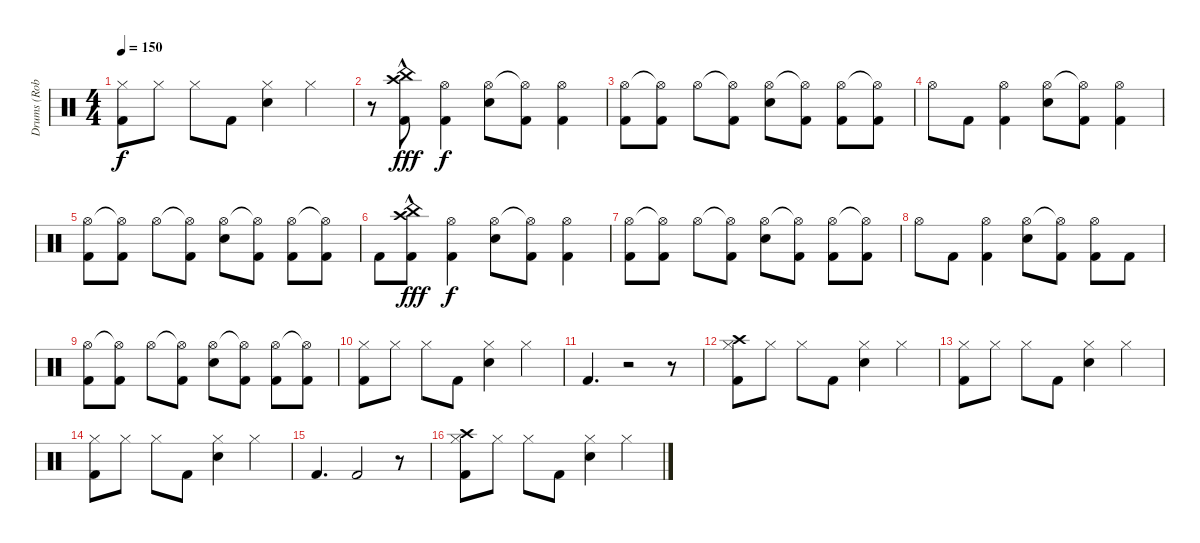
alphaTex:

\track ("Drums (Rob)" "Drums (Rob") {instrument percussion}
\staff {score}
\articulation defaults
\ts (4 4)
\tempo 150
\clef neutral
\ks c
("Hi-Hat (closed)" "Kick (hit) 2").8{dy f} "Hi-Hat (closed)".8 "Hi-Hat (closed)".8 "Kick (hit) 2".8 ("Hi-Hat (closed)" "Snare (hit) 2").4 "Hi-Hat (closed)".4 |
r.8 ("Crash high (hit)"{hac} "China (hit)"{hac} "Kick (hit) 2").8{dy fff} ("Hi-Hat (open)" "Kick (hit) 2").4{dy f} ("Hi-Hat (open)" "Snare (hit) 2").8 ("Hi-Hat (open)"{t} "Kick (hit) 2").8 ("Hi-Hat (open)" "Kick (hit) 2").4 |
("Hi-Hat (open)" "Kick (hit) 2").8 ("Hi-Hat (open)"{t} "Kick (hit) 2").8 "Hi-Hat (open)".8 ("Hi-Hat (open)"{t} "Kick (hit) 2").8 ("Hi-Hat (open)" "Snare (hit) 2").8 ("Hi-Hat (open)"{t} "Kick (hit) 2").8 ("Hi-Hat (open)" "Kick (hit) 2").8 ("Hi-Hat (open)"{t} "Kick (hit) 2").8 |
"Hi-Hat (open)".8 "Kick (hit) 2".8 ("Hi-Hat (open)" "Kick (hit) 2").4 ("Hi-Hat (open)" "Snare (hit) 2").8 ("Hi-Hat (open)"{t} "Kick (hit) 2").8 ("Hi-Hat (open)" "Kick (hit) 2").4 |
("Hi-Hat (open)" "Kick (hit) 2").8 ("Hi-Hat (open)"{t} "Kick (hit) 2").8 "Hi-Hat (open)".8 ("Hi-Hat (open)"{t} "Kick (hit) 2").8 ("Hi-Hat (open)" "Snare (hit) 2").8 ("Hi-Hat (open)"{t} "Kick (hit) 2").8 ("Hi-Hat (open)" "Kick (hit) 2").8 ("Hi-Hat (open)"{t} "Kick (hit) 2").8 |
"Kick (hit) 2".8 ("Crash high (hit)"{hac} "China (hit)"{hac} "Kick (hit) 2").8{dy fff} ("Hi-Hat (open)" "Kick (hit) 2").4{dy f} ("Hi-Hat (open)" "Snare (hit) 2").8 ("Hi-Hat (open)"{t} "Kick (hit) 2").8 ("Hi-Hat (open)" "Kick (hit) 2").4 |
("Hi-Hat (open)" "Kick (hit) 2").8 ("Hi-Hat (open)"{t} "Kick (hit) 2").8 "Hi-Hat (open)".8 ("Hi-Hat (open)"{t} "Kick (hit) 2").8 ("Hi-Hat (open)" "Snare (hit) 2").8 ("Hi-Hat (open)"{t} "Kick (hit) 2").8 ("Hi-Hat (open)" "Kick (hit) 2").8 ("Hi-Hat (open)"{t} "Kick (hit) 2").8 |
"Hi-Hat (open)".8 "Kick (hit) 2".8 ("Hi-Hat (open)" "Kick (hit) 2").4 ("Hi-Hat (open)" "Snare (hit) 2").8 ("Hi-Hat (open)"{t} "Kick (hit) 2").8 ("Hi-Hat (open)" "Kick (hit) 2").8 "Kick (hit) 2".8 |
("Hi-Hat (open)" "Kick (hit) 2").8 ("Hi-Hat (open)"{t} "Kick (hit) 2").8 "Hi-Hat (open)".8 ("Hi-Hat (open)"{t} "Kick (hit) 2").8 ("Hi-Hat (open)" "Snare (hit) 2").8 ("Hi-Hat (open)"{t} "Kick (hit) 2").8 ("Hi-Hat (open)" "Kick (hit) 2").8 ("Hi-Hat (open)"{t} "Kick (hit) 2").8 |
("Hi-Hat (closed)" "Kick (hit) 2").8 "Hi-Hat (closed)".8 "Hi-Hat (closed)".8 "Kick (hit) 2".8 ("Hi-Hat (closed)" "Hand Clap (hit)").4 "Hi-Hat (closed)".4 |
"Kick (hit) 2".4{d} r.2 r.8 |
("Crash high (hit)" "Hi-Hat (closed)" "Kick (hit) 2").8 "Hi-Hat (closed)".8 "Hi-Hat (closed)".8 "Kick (hit) 2".8 ("Hi-Hat (closed)" "Hand Clap (hit)").4 "Hi-Hat (closed)".4 |
("Hi-Hat (closed)" "Kick (hit) 2").8 "Hi-Hat (closed)".8 "Hi-Hat (closed)".8 "Kick (hit) 2".8 ("Hi-Hat (closed)" "Hand Clap (hit)").4 "Hi-Hat (closed)".4 |
("Hi-Hat (closed)" "Kick (hit) 2").8 "Hi-Hat (closed)".8 "Hi-Hat (closed)".8 "Kick (hit) 2".8 ("Hi-Hat (closed)" "Hand Clap (hit)").4 "Hi-Hat (closed)".4 |
"Kick (hit) 2".4{d} "Kick (hit) 2".2 r.8 |
("Crash high (hit)" "Hi-Hat (closed)" "Kick (hit) 2").8 "Hi-Hat (closed)".8 "Hi-Hat (closed)".8 "Kick (hit) 2".8 ("Hi-Hat (closed)" "Hand Clap (hit)").4 "Hi-Hat (closed)".4
